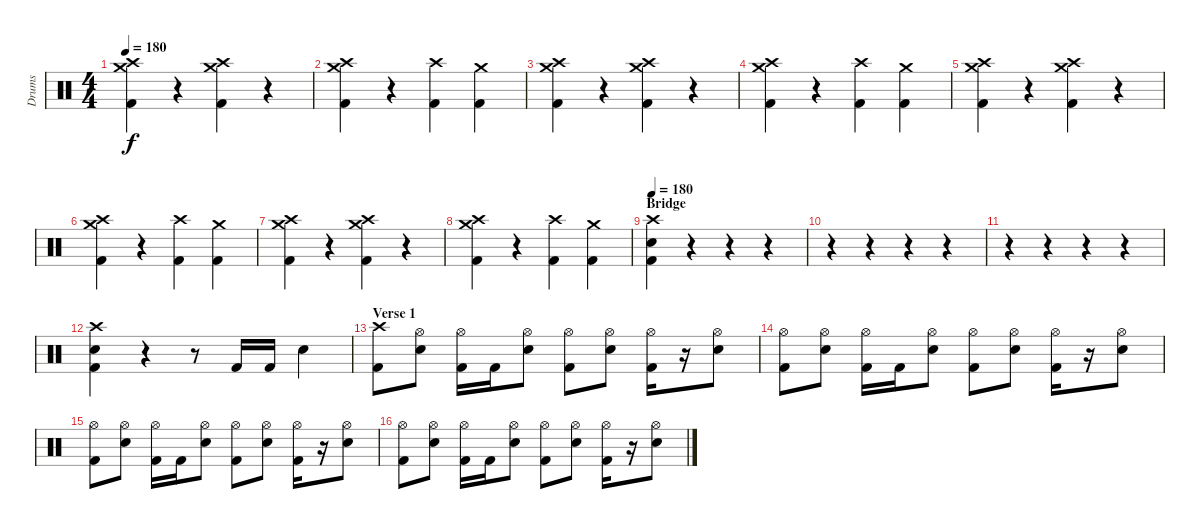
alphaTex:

\track ("Drums" "Drums") {instrument percussion}
\staff {score}
\articulation defaults
\ts (4 4)
\tempo 180
\tempo 140
\tempo 180
\clef neutral
\ks c
("Crash high (hit)" "Crash medium (hit)" "Kick (hit) 2").4{dy f} r.4 ("Crash high (hit)" "Crash medium (hit)" "Kick (hit) 2").4 r.4 |
("Crash high (hit)" "Crash medium (hit)" "Kick (hit) 2").4 r.4 ("Crash high (hit)" "Kick (hit) 2").4 ("Crash medium (hit)" "Kick (hit) 2").4 |
("Crash high (hit)" "Crash medium (hit)" "Kick (hit) 2").4 r.4 ("Crash high (hit)" "Crash medium (hit)" "Kick (hit) 2").4 r.4 |
("Crash high (hit)" "Crash medium (hit)" "Kick (hit) 2").4 r.4 ("Crash high (hit)" "Kick (hit) 2").4 ("Crash medium (hit)" "Kick (hit) 2").4 |
("Crash high (hit)" "Crash medium (hit)" "Kick (hit) 2").4 r.4 ("Crash high (hit)" "Crash medium (hit)" "Kick (hit) 2").4 r.4 |
("Crash high (hit)" "Crash medium (hit)" "Kick (hit) 2").4 r.4 ("Crash high (hit)" "Kick (hit) 2").4 ("Crash medium (hit)" "Kick (hit) 2").4 |
("Crash high (hit)" "Crash medium (hit)" "Kick (hit) 2").4 r.4 ("Crash high (hit)" "Crash medium (hit)" "Kick (hit) 2").4 r.4 |
("Crash high (hit)" "Crash medium (hit)" "Kick (hit) 2").4 r.4 ("Crash high (hit)" "Kick (hit) 2").4 ("Crash medium (hit)" "Kick (hit) 2").4 |
\section ("" "Bridge")
\tempo 180
("Crash high (hit)" "Snare (hit) 2" "Kick (hit) 2").4 r.4 r.4 r.4 |
r.4 r.4 r.4 r.4 |
r.4 r.4 r.4 r.4 |
("Crash high (hit)" "Snare (hit) 2" "Kick (hit) 2").4 r.4 r.8 "Kick (hit) 2".16 "Kick (hit) 2".16 "Snare (hit) 2".4 |
\section ("" "Verse 1")
("Crash high (hit)" "Kick (hit) 2").8 ("Hi-Hat (open)" "Snare (hit) 2").8 ("Hi-Hat (open)" "Kick (hit) 2").16 "Kick (hit) 2".16 ("Hi-Hat (open)" "Snare (hit) 2").8 ("Hi-Hat (open)" "Kick (hit) 2").8 ("Hi-Hat (open)" "Snare (hit) 2").8 ("Hi-Hat (open)" "Kick (hit) 2").16 r.16 ("Hi-Hat (open)" "Snare (hit) 2").8 |
("Hi-Hat (open)" "Kick (hit) 2").8 ("Hi-Hat (open)" "Snare (hit) 2").8 ("Hi-Hat (open)" "Kick (hit) 2").16 "Kick (hit) 2".16 ("Hi-Hat (open)" "Snare (hit) 2").8 ("Hi-Hat (open)" "Kick (hit) 2").8 ("Hi-Hat (open)" "Snare (hit) 2").8 ("Hi-Hat (open)" "Kick (hit) 2").16 r.16 ("Hi-Hat (open)" "Snare (hit) 2").8 |
("Hi-Hat (open)" "Kick (hit) 2").8 ("Hi-Hat (open)" "Snare (hit) 2").8 ("Hi-Hat (open)" "Kick (hit) 2").16 "Kick (hit) 2".16 ("Hi-Hat (open)" "Snare (hit) 2").8 ("Hi-Hat (open)" "Kick (hit) 2").8 ("Hi-Hat (open)" "Snare (hit) 2").8 ("Hi-Hat (open)" "Kick (hit) 2").16 r.16 ("Hi-Hat (open)" "Snare (hit) 2").8 |
("Hi-Hat (open)" "Kick (hit) 2").8 ("Hi-Hat (open)" "Snare (hit) 2").8 ("Hi-Hat (open)" "Kick (hit) 2").16 "Kick (hit) 2".16 ("Hi-Hat (open)" "Snare (hit) 2").8 ("Hi-Hat (open)" "Kick (hit) 2").8 ("Hi-Hat (open)" "Snare (hit) 2").8 ("Hi-Hat (open)" "Kick (hit) 2").16 r.16 ("Hi-Hat (open)" "Snare (hit) 2").8
